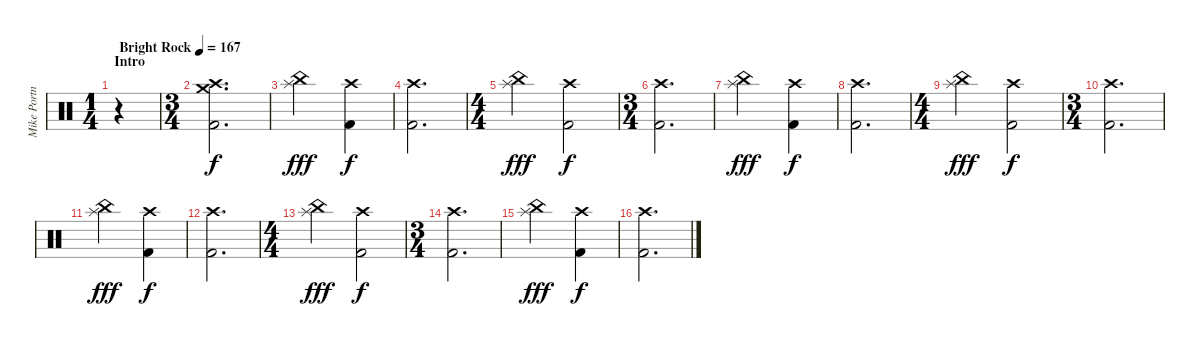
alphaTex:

\track ("Mike Portnoy" "Mike Portn") {instrument percussion}
\staff {score}
\articulation defaults
\ts (1 4)
\section ("" "Intro")
\tempo (167 "Bright Rock")
\clef neutral
\ks c
r.4{dy f} |
\ts (3 4)
("Crash high (hit)" "Crash medium (hit)" "Kick (hit) 2").2{d} |
("China (hit)" "Splash (hit)").2{dy fff} ("Crash high (hit)" "Kick (hit) 2").4{dy f} |
("Crash high (hit)" "Kick (hit) 2").2{d} |
\ts (4 4)
("China (hit)" "Splash (hit)").2{dy fff} ("Crash high (hit)" "Kick (hit) 2").2{dy f} |
\ts (3 4)
("Crash high (hit)" "Kick (hit) 2").2{d} |
("China (hit)" "Splash (hit)").2{dy fff} ("Crash high (hit)" "Kick (hit) 2").4{dy f} |
("Crash high (hit)" "Kick (hit) 2").2{d} |
\ts (4 4)
("China (hit)" "Splash (hit)").2{dy fff} ("Crash high (hit)" "Kick (hit) 2").2{dy f} |
\ts (3 4)
("Crash high (hit)" "Kick (hit) 2").2{d} |
("China (hit)" "Splash (hit)").2{dy fff} ("Crash high (hit)" "Kick (hit) 2").4{dy f} |
("Crash high (hit)" "Kick (hit) 2").2{d} |
\ts (4 4)
("China (hit)" "Splash (hit)").2{dy fff} ("Crash high (hit)" "Kick (hit) 2").2{dy f} |
\ts (3 4)
("Crash high (hit)" "Kick (hit) 2").2{d} |
("China (hit)" "Splash (hit)").2{dy fff} ("Crash high (hit)" "Kick (hit) 2").4{dy f} |
("Crash high (hit)" "Kick (hit) 2").2{d}
